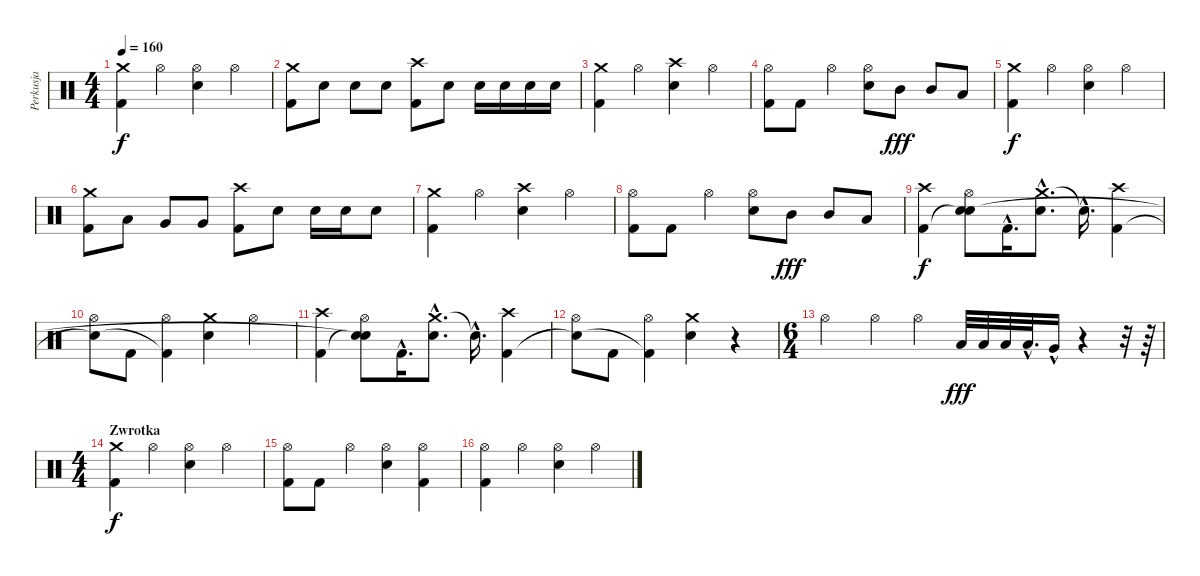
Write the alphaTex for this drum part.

\track ("Perkusja" "Perkusja") {instrument percussion}
\staff {score}
\articulation defaults
\ts (4 4)
\tempo 160
\clef neutral
\ks c
("Crash medium (hit)" "Kick (hit) 2").4{dy f} "Hi-Hat (open)".4 ("Hi-Hat (open)" "Snare (hit) 2").4 "Hi-Hat (open)".4 |
("Crash medium (hit)" "Kick (hit) 2").8 "Snare (hit) 2".8 "Snare (hit) 2".8 "Snare (hit) 2".8 ("Crash high (hit)" "Kick (hit) 2").8 "Snare (hit) 2".8 "Snare (hit) 2".16 "Snare (hit) 2".16 "Snare (hit) 2".16 "Snare (hit) 2".16 |
("Crash medium (hit)" "Kick (hit) 2").4 "Hi-Hat (open)".4 ("Crash high (hit)" "Snare (hit) 2").4 "Hi-Hat (open)".4 |
("Hi-Hat (open)" "Kick (hit) 2").8 "Kick (hit) 2".8 "Hi-Hat (open)".4 ("Hi-Hat (open)" "Snare (hit) 2").8 "Mid Tom (hit)".8{dy fff} "Mid Tom (hit)".8 "Low Tom (hit)".8 |
("Crash medium (hit)" "Kick (hit) 2").4{dy f} "Hi-Hat (open)".4 ("Hi-Hat (open)" "Snare (hit) 2").4 "Hi-Hat (open)".4 |
("Crash medium (hit)" "Kick (hit) 2").8 "Low Tom (hit)".8 "Very Low Tom (hit)".8 "Very Low Tom (hit)".8 ("Crash high (hit)" "Kick (hit) 2").8 "Snare (hit) 2".8 "Snare (hit) 2".16 "Snare (hit) 2".16 "Snare (hit) 2".8 |
("Crash medium (hit)" "Kick (hit) 2").4 "Hi-Hat (open)".4 ("Crash high (hit)" "Snare (hit) 2").4 "Hi-Hat (open)".4 |
("Hi-Hat (open)" "Kick (hit) 2").8 "Kick (hit) 2".8 "Hi-Hat (open)".4 ("Hi-Hat (open)" "Snare (hit) 2").8 "Mid Tom (hit)".8{dy fff} "Mid Tom (hit)".8 "Low Tom (hit)".8 |
("Crash high (hit)" "Kick (hit) 2").4{dy f} ("Hi-Hat (open)" "Snare (hit)"{t} "Snare (hit)").8 "Kick (hit) 2"{hac}.16{d} ("Crash medium (hit)"{hac} "Snare (hit) 2"{hac}).8{d} "Snare (hit)"{hac t}.16{d} ("Crash high (hit)" "Kick (hit) 2").4 |
("Hi-Hat (open)" "Snare (hit)"{t}).8 "Kick (hit) 2".8 ("Hi-Hat (open)" "Kick (hit) 2"{t}).4 ("Crash medium (hit)" "Snare (hit) 2").4 "Hi-Hat (open)".4 |
("Crash high (hit)" "Kick (hit) 2").4 ("Hi-Hat (open)" "Snare (hit)"{t} "Snare (hit)"{t}).8 "Kick (hit) 2"{hac}.16{d} ("Crash medium (hit)"{hac} "Snare (hit) 2"{hac}).8{d} "Snare (hit)"{hac t}.16{d} ("Crash high (hit)" "Kick (hit) 2").4 |
("Hi-Hat (open)" "Snare (hit)"{t}).8 "Kick (hit) 2".8 ("Hi-Hat (open)" "Kick (hit) 2"{t}).4 ("Crash medium (hit)" "Snare (hit) 2").4 r.4 |
\ts (6 4)
"Hi-Hat (open)".2 "Hi-Hat (open)".4 "Hi-Hat (open)".4 "Low Tom (hit)".32{dy fff} "Low Floor Tom (hit)".32 "Low Floor Tom (hit)".32 "Low Tom (hit)"{hac}.32{d} "Very Low Tom (hit)"{hac}.16 r.4 r.32 r.64 |
\ts (4 4)
\section ("" "Zwrotka")
("Crash medium (hit)" "Kick (hit) 2").4{dy f} "Hi-Hat (open)".4 ("Hi-Hat (open)" "Snare (hit) 2").4 "Hi-Hat (open)".4 |
("Hi-Hat (open)" "Kick (hit) 2").8 "Kick (hit) 2".8 "Hi-Hat (open)".4 ("Hi-Hat (open)" "Snare (hit) 2").4 ("Hi-Hat (open)" "Kick (hit) 2").4 |
("Hi-Hat (open)" "Kick (hit) 2").4 "Hi-Hat (open)".4 ("Hi-Hat (open)" "Snare (hit) 2").4 "Hi-Hat (open)".4
